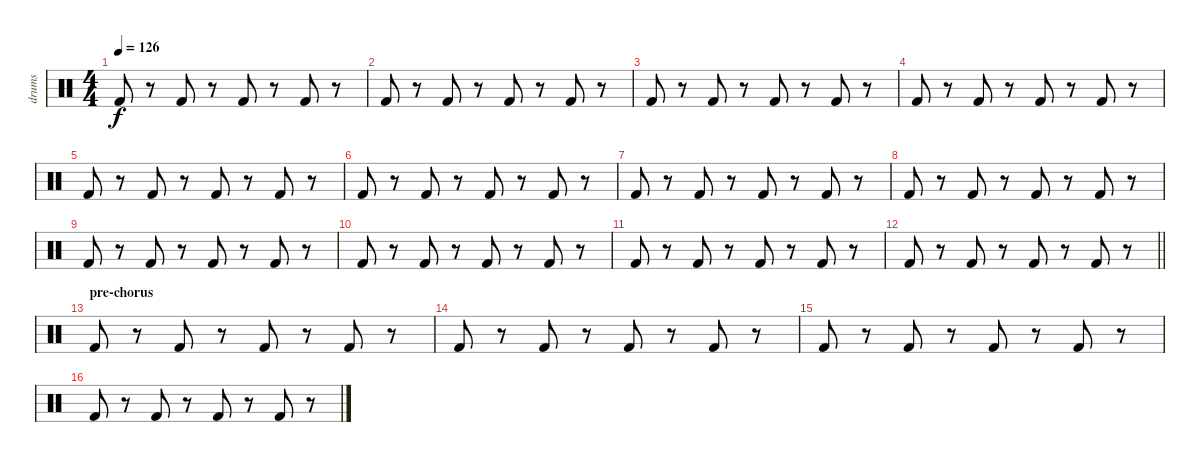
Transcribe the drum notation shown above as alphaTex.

\track ("drums" "drums") {instrument percussion}
\staff {score}
\articulation defaults
\ts (4 4)
\tempo 126
\clef neutral
\ks c "Kick (hit) 2".8{dy f}
r.8 "Kick (hit) 2".8 r.8 "Kick (hit) 2".8 r.8 "Kick (hit) 2".8 r.8 |
"Kick (hit) 2".8 r.8 "Kick (hit) 2".8 r.8 "Kick (hit) 2".8 r.8 "Kick (hit) 2".8 r.8 |
"Kick (hit) 2".8 r.8 "Kick (hit) 2".8 r.8 "Kick (hit) 2".8 r.8 "Kick (hit) 2".8 r.8 |
"Kick (hit) 2".8 r.8 "Kick (hit) 2".8 r.8 "Kick (hit) 2".8 r.8 "Kick (hit) 2".8 r.8 |
"Kick (hit) 2".8 r.8 "Kick (hit) 2".8 r.8 "Kick (hit) 2".8 r.8 "Kick (hit) 2".8 r.8 |
"Kick (hit) 2".8 r.8 "Kick (hit) 2".8 r.8 "Kick (hit) 2".8 r.8 "Kick (hit) 2".8 r.8 |
"Kick (hit) 2".8 r.8 "Kick (hit) 2".8 r.8 "Kick (hit) 2".8 r.8 "Kick (hit) 2".8 r.8 |
"Kick (hit) 2".8 r.8 "Kick (hit) 2".8 r.8 "Kick (hit) 2".8 r.8 "Kick (hit) 2".8 r.8 |
"Kick (hit) 2".8 r.8 "Kick (hit) 2".8 r.8 "Kick (hit) 2".8 r.8 "Kick (hit) 2".8 r.8 |
"Kick (hit) 2".8 r.8 "Kick (hit) 2".8 r.8 "Kick (hit) 2".8 r.8 "Kick (hit) 2".8 r.8 |
"Kick (hit) 2".8 r.8 "Kick (hit) 2".8 r.8 "Kick (hit) 2".8 r.8 "Kick (hit) 2".8 r.8 |
\barLineRight lightlight "Kick (hit) 2".8
r.8 "Kick (hit) 2".8 r.8 "Kick (hit) 2".8 r.8 "Kick (hit) 2".8 r.8 |
\section ("" "pre-chorus")
"Kick (hit) 2".8 r.8 "Kick (hit) 2".8 r.8 "Kick (hit) 2".8 r.8 "Kick (hit) 2".8 r.8 |
"Kick (hit) 2".8 r.8 "Kick (hit) 2".8 r.8 "Kick (hit) 2".8 r.8 "Kick (hit) 2".8 r.8 |
"Kick (hit) 2".8 r.8 "Kick (hit) 2".8 r.8 "Kick (hit) 2".8 r.8 "Kick (hit) 2".8 r.8 |
"Kick (hit) 2".8 r.8 "Kick (hit) 2".8 r.8 "Kick (hit) 2".8 r.8 "Kick (hit) 2".8 r.8
